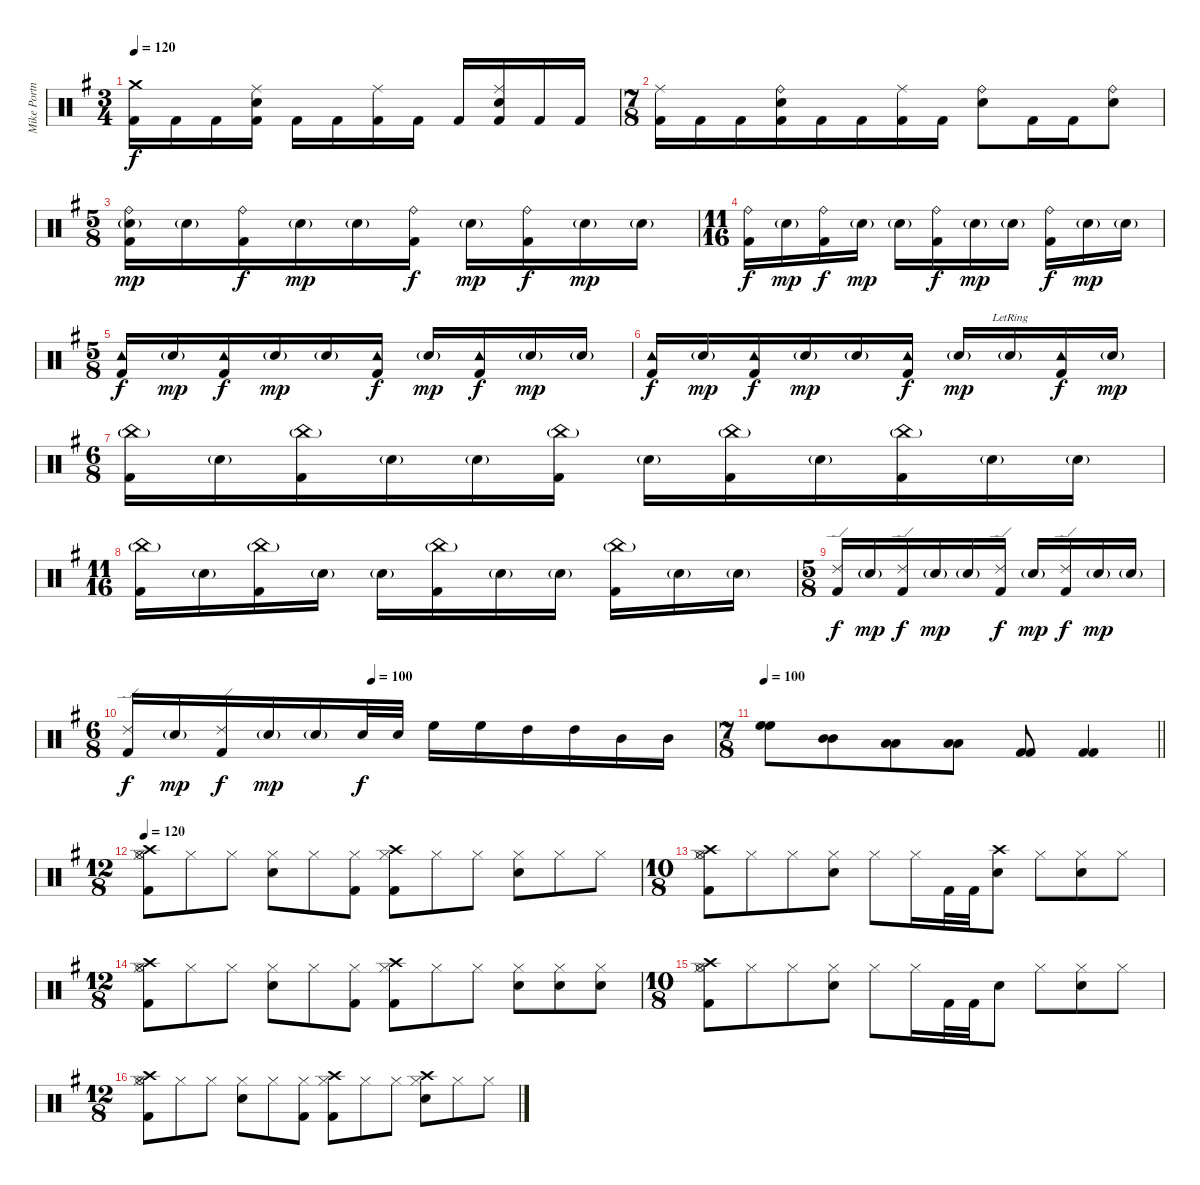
\track ("Mike Portnoy - Drums" "Mike Portn") {instrument percussion}
\staff {score}
\articulation defaults
\ts (3 4)
\tempo 120
\clef neutral
\ks g
("Crash medium (hit)" "Kick (hit) 2").16{dy f} "Kick (hit) 2".16 "Kick (hit) 2".16 ("Ride (middle)" "Snare (hit) 2" "Kick (hit) 2").16 "Kick (hit) 2".16 "Kick (hit) 2".16 ("Ride (middle)" "Kick (hit) 2").16 "Kick (hit) 2".16 "Kick (hit) 2".16 ("Ride (middle)" "Snare (hit) 2" "Kick (hit) 2").16 "Kick (hit) 2".16 "Kick (hit) 2".16 |
\ts (7 8)
("Ride (middle)" "Kick (hit) 2").16 "Kick (hit) 2".16 "Kick (hit) 2".16 ("Ride (bell)" "Snare (hit) 2" "Kick (hit) 2").16 "Kick (hit) 2".16 "Kick (hit) 2".16 ("Ride (middle)" "Kick (hit) 2").16 "Kick (hit) 2".16 ("Ride (bell)" "Snare (hit) 2").8 "Kick (hit) 2".16 "Kick (hit) 2".16 ("Ride (bell)" "Snare (hit) 2").8 |
\ts (5 8)
("Ride (bell)" "Snare (hit) 2"{g} "Kick (hit) 2").16{dy mp} "Snare (hit) 2"{g}.16 ("Ride (bell)" "Kick (hit) 2").16{dy f} "Snare (hit) 2"{g}.16{dy mp} "Snare (hit) 2"{g}.16 ("Ride (bell)" "Kick (hit) 2").16{dy f} "Snare (hit) 2"{g}.16{dy mp} ("Ride (bell)" "Kick (hit) 2").16{dy f} "Snare (hit) 2"{g}.16{dy mp} "Snare (hit) 2"{g}.16 |
\ts (11 16)
("Ride (bell)" "Kick (hit) 2").16{dy f} "Snare (hit) 2"{g}.16{dy mp} ("Ride (bell)" "Kick (hit) 2").16{dy f} "Snare (hit) 2"{g}.16{dy mp} "Snare (hit) 2"{g}.16 ("Ride (bell)" "Kick (hit) 2").16{dy f} "Snare (hit) 2"{g}.16{dy mp} "Snare (hit) 2"{g}.16 ("Ride (bell)" "Kick (hit) 2").16{dy f} "Snare (hit) 2"{g}.16{dy mp} "Snare (hit) 2"{g}.16 |
\ts (5 8)
("Tambourine (hit)" "Kick (hit) 2").16{dy f} "Snare (hit) 2"{g}.16{dy mp} ("Tambourine (hit)" "Kick (hit) 2").16{dy f} "Snare (hit) 2"{g}.16{dy mp} "Snare (hit) 2"{g}.16 ("Tambourine (hit)" "Kick (hit) 2").16{dy f} "Snare (hit) 2"{g}.16{dy mp} ("Tambourine (hit)" "Kick (hit) 2").16{dy f} "Snare (hit) 2"{g}.16{dy mp} "Snare (hit) 2"{g}.16 |
("Tambourine (hit)" "Kick (hit) 2").16{dy f} "Snare (hit) 2"{g}.16{dy mp} ("Tambourine (hit)" "Kick (hit) 2").16{dy f} "Snare (hit) 2"{g}.16{dy mp} "Snare (hit) 2"{g}.16 ("Tambourine (hit)" "Kick (hit) 2").16{dy f} "Snare (hit) 2"{g}.16{dy mp} "Snare (hit) 2"{g lr}.16 ("Tambourine (hit)" "Kick (hit) 2").16{dy f} "Snare (hit) 2"{g}.16{dy mp} |
\ts (6 8)
("China (hit)"{g} "Kick (hit) 2").16 "Snare (hit) 2"{g}.16 ("China (hit)"{g} "Kick (hit) 2").16 "Snare (hit) 2"{g}.16 "Snare (hit) 2"{g}.16 ("China (hit)"{g} "Kick (hit) 2").16 "Snare (hit) 2"{g}.16 ("China (hit)"{g} "Kick (hit) 2").16 "Snare (hit) 2"{g}.16 ("China (hit)"{g} "Kick (hit) 2").16 "Snare (hit) 2"{g}.16 "Snare (hit) 2"{g}.16 |
\ts (11 16)
("China (hit)"{g} "Kick (hit) 2").16 "Snare (hit) 2"{g}.16 ("China (hit)"{g} "Kick (hit) 2").16 "Snare (hit) 2"{g}.16 "Snare (hit) 2"{g}.16 ("China (hit)"{g} "Kick (hit) 2").16 "Snare (hit) 2"{g}.16 "Snare (hit) 2"{g}.16 ("China (hit)"{g} "Kick (hit) 2").16 "Snare (hit) 2"{g}.16 "Snare (hit) 2"{g}.16 |
\ts (5 8)
("Ride (edge) 2" "Kick (hit) 2").16{dy f} "Snare (hit) 2"{g}.16{dy mp} ("Ride (edge) 2" "Kick (hit) 2").16{dy f} "Snare (hit) 2"{g}.16{dy mp} "Snare (hit) 2"{g}.16 ("Ride (edge) 2" "Kick (hit) 2").16{dy f} "Snare (hit) 2"{g}.16{dy mp} ("Ride (edge) 2" "Kick (hit) 2").16{dy f} "Snare (hit) 2"{g}.16{dy mp} "Snare (hit) 2"{g}.16 |
\ts (6 8)
\tempo (100 0.4166666666666667)
("Ride (edge) 2" "Kick (hit) 2").16{dy f} "Snare (hit) 2"{g}.16{dy mp} ("Ride (edge) 2" "Kick (hit) 2").16{dy f} "Snare (hit) 2"{g}.16{dy mp} "Snare (hit) 2"{g}.16 "Snare (hit) 2".32{dy f} "Snare (hit) 2".32 "High Floor Tom (hit)".16 "High Floor Tom (hit)".16 "High Tom (hit)".16 "High Tom (hit)".16 "Mid Tom (hit)".16 "Mid Tom (hit)".16 |
\ts (7 8)
\tempo 100
\barLineRight lightlight
("High Floor Tom (hit)" "High Floor Tom (hit)").8 ("Mid Tom (hit)" "Mid Tom (hit)").8 ("Low Tom (hit)" "Low Tom (hit)").8 ("Low Floor Tom (hit)" "Low Floor Tom (hit)").8 ("Kick (hit) 2" "Kick (hit) 2").8 ("Kick (hit) 2" "Kick (hit) 2").4 |
\ts (12 8)
\tempo 120
("Hi-Hat (open)" "Kick (hit) 2" "Crash high (hit)" "Hi-Hat (closed)").8 "Hi-Hat (closed)".8 "Hi-Hat (closed)".8 ("Snare (hit) 2" "Hi-Hat (closed)").8 "Hi-Hat (closed)".8 ("Kick (hit) 2" "Hi-Hat (closed)").8 ("Crash high (hit)" "Kick (hit) 2" "Hi-Hat (closed)").8 "Hi-Hat (closed)".8 "Hi-Hat (closed)".8 ("Snare (hit) 2" "Hi-Hat (closed)").8 "Hi-Hat (closed)".8 "Hi-Hat (closed)".8 |
\ts (10 8)
("Crash high (hit)" "Hi-Hat (open)" "Kick (hit) 2" "Hi-Hat (closed)").8 "Hi-Hat (closed)".8 "Hi-Hat (closed)".8 ("Snare (hit) 2" "Hi-Hat (closed)").8 "Hi-Hat (closed)".8 "Hi-Hat (closed)".16 "Kick (hit) 2".32 "Kick (hit) 2".32 ("Crash high (hit)" "Snare (hit) 2").8 "Hi-Hat (closed)".8 ("Snare (hit) 2" "Hi-Hat (closed)").8 "Hi-Hat (closed)".8 |
\ts (12 8)
("Hi-Hat (open)" "Kick (hit) 2" "Crash high (hit)" "Hi-Hat (closed)").8 "Hi-Hat (closed)".8 "Hi-Hat (closed)".8 ("Snare (hit) 2" "Hi-Hat (closed)").8 "Hi-Hat (closed)".8 ("Kick (hit) 2" "Hi-Hat (closed)").8 ("Kick (hit) 2" "Crash high (hit)" "Hi-Hat (closed)").8 "Hi-Hat (closed)".8 "Hi-Hat (closed)".8 ("Snare (hit) 2" "Hi-Hat (closed)").8 ("Snare (hit) 2" "Hi-Hat (closed)").8 ("Snare (hit) 2" "Hi-Hat (closed)").8 |
\ts (10 8)
("Crash high (hit)" "Hi-Hat (open)" "Kick (hit) 2" "Hi-Hat (closed)").8 "Hi-Hat (closed)".8 "Hi-Hat (closed)".8 ("Snare (hit) 2" "Hi-Hat (closed)").8 "Hi-Hat (closed)".8 "Hi-Hat (closed)".16 "Kick (hit) 2".32 "Kick (hit) 2".32 "Snare (hit) 2".8 "Hi-Hat (closed)".8 ("Snare (hit) 2" "Hi-Hat (closed)").8 "Hi-Hat (closed)".8 |
\ts (12 8)
("Hi-Hat (open)" "Kick (hit) 2" "Crash high (hit)" "Hi-Hat (closed)").8 "Hi-Hat (closed)".8 "Hi-Hat (closed)".8 ("Snare (hit) 2" "Hi-Hat (closed)").8 "Hi-Hat (closed)".8 ("Kick (hit) 2" "Hi-Hat (closed)").8 ("Kick (hit) 2" "Crash high (hit)" "Hi-Hat (closed)").8 "Hi-Hat (closed)".8 "Hi-Hat (closed)".8 ("Snare (hit) 2" "Crash high (hit)" "Hi-Hat (closed)").8 "Hi-Hat (closed)".8 "Hi-Hat (closed)".8
